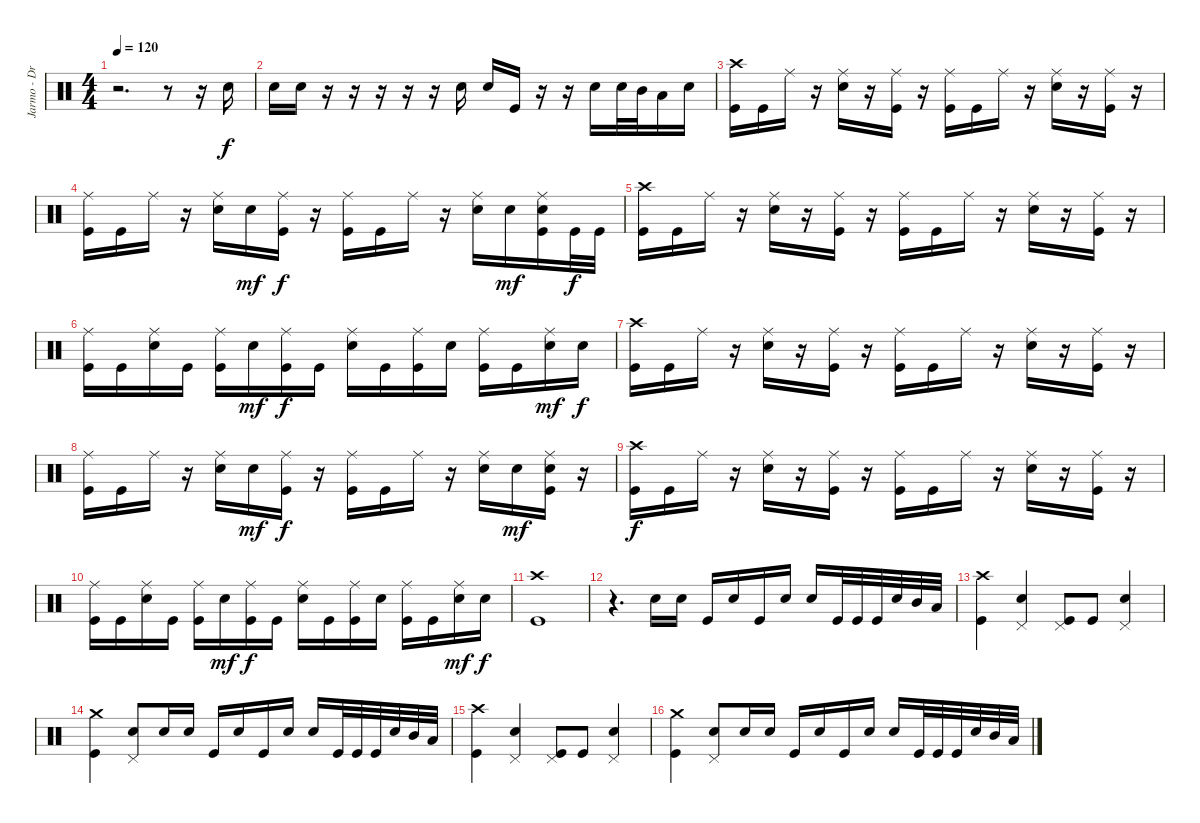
\track ("Jarmo - Drums" "Jarmo - Dr") {instrument percussion}
\staff {score}
\articulation defaults
\ts (4 4)
\tempo 120
\clef neutral
\ks c
r.2{d dy f} r.8 r.16 "Electric Snare (hit)".16 |
"Electric Snare (hit)".16 "Electric Snare (hit)".16 r.16 r.16 r.16 r.16 r.16 "Electric Snare (hit)".16 "Electric Snare (hit)".16 "Kick (hit)".16 r.16 r.16 "Electric Snare (hit)".16 "Electric Snare (hit)".32 "Mid Tom (hit)".32 "Low Tom (hit)".16 "Electric Snare (hit)".16 |
("Kick (hit)" "Crash high (hit)").16 "Kick (hit)".16 "Ride (middle)".16 r.16 ("Electric Snare (hit)" "Ride (middle)").16 r.16 ("Kick (hit)" "Ride (middle)").16 r.16 ("Kick (hit)" "Ride (middle)").16 "Kick (hit)".16 "Ride (middle)".16 r.16 ("Electric Snare (hit)" "Ride (middle)").16 r.16 ("Kick (hit)" "Ride (middle)").16 r.16 |
("Kick (hit)" "Ride (middle)").16 "Kick (hit)".16 "Ride (middle)".16 r.16 ("Electric Snare (hit)" "Ride (middle)").16 "Electric Snare (hit)".16{dy mf} ("Kick (hit)" "Ride (middle)").16{dy f} r.16 ("Kick (hit)" "Ride (middle)").16 "Kick (hit)".16 "Ride (middle)".16 r.16 ("Electric Snare (hit)" "Ride (middle)").16 "Electric Snare (hit)".16{dy mf} ("Kick (hit)" "Electric Snare (hit)" "Ride (middle)").16 "Kick (hit)".32{dy f} "Kick (hit)".32 |
("Kick (hit)" "Crash high (hit)").16 "Kick (hit)".16 "Ride (middle)".16 r.16 ("Electric Snare (hit)" "Ride (middle)").16 r.16 ("Kick (hit)" "Ride (middle)").16 r.16 ("Kick (hit)" "Ride (middle)").16 "Kick (hit)".16 "Ride (middle)".16 r.16 ("Electric Snare (hit)" "Ride (middle)").16 r.16 ("Kick (hit)" "Ride (middle)").16 r.16 |
("Kick (hit)" "Ride (middle)").16 "Kick (hit)".16 ("Electric Snare (hit)" "Ride (middle)").16 "Kick (hit)".16 ("Kick (hit)" "Ride (middle)").16 "Electric Snare (hit)".16{dy mf} ("Kick (hit)" "Ride (middle)").16{dy f} "Kick (hit)".16 ("Electric Snare (hit)" "Ride (middle)").16 "Kick (hit)".16 ("Kick (hit)" "Ride (middle)").16 "Electric Snare (hit)".16 ("Kick (hit)" "Ride (middle)").16 "Kick (hit)".16 ("Electric Snare (hit)" "Ride (middle)").16{dy mf} "Electric Snare (hit)".16{dy f} |
("Kick (hit)" "Crash high (hit)").16 "Kick (hit)".16 "Ride (middle)".16 r.16 ("Electric Snare (hit)" "Ride (middle)").16 r.16 ("Kick (hit)" "Ride (middle)").16 r.16 ("Kick (hit)" "Ride (middle)").16 "Kick (hit)".16 "Ride (middle)".16 r.16 ("Electric Snare (hit)" "Ride (middle)").16 r.16 ("Kick (hit)" "Ride (middle)").16 r.16 |
("Kick (hit)" "Ride (middle)").16 "Kick (hit)".16 "Ride (middle)".16 r.16 ("Electric Snare (hit)" "Ride (middle)").16 "Electric Snare (hit)".16{dy mf} ("Kick (hit)" "Ride (middle)").16{dy f} r.16 ("Kick (hit)" "Ride (middle)").16 "Kick (hit)".16 "Ride (middle)".16 r.16 ("Electric Snare (hit)" "Ride (middle)").16 "Electric Snare (hit)".16{dy mf} ("Kick (hit)" "Electric Snare (hit)" "Ride (middle)").16 r.16 |
("Kick (hit)" "Crash high (hit)").16{dy f} "Kick (hit)".16 "Ride (middle)".16 r.16 ("Electric Snare (hit)" "Ride (middle)").16 r.16 ("Kick (hit)" "Ride (middle)").16 r.16 ("Kick (hit)" "Ride (middle)").16 "Kick (hit)".16 "Ride (middle)".16 r.16 ("Electric Snare (hit)" "Ride (middle)").16 r.16 ("Kick (hit)" "Ride (middle)").16 r.16 |
("Kick (hit)" "Ride (middle)").16 "Kick (hit)".16 ("Electric Snare (hit)" "Ride (middle)").16 "Kick (hit)".16 ("Kick (hit)" "Ride (middle)").16 "Electric Snare (hit)".16{dy mf} ("Kick (hit)" "Ride (middle)").16{dy f} "Kick (hit)".16 ("Electric Snare (hit)" "Ride (middle)").16 "Kick (hit)".16 ("Kick (hit)" "Ride (middle)").16 "Electric Snare (hit)".16 ("Kick (hit)" "Ride (middle)").16 "Kick (hit)".16 ("Electric Snare (hit)" "Ride (middle)").16{dy mf} "Electric Snare (hit)".16{dy f} |
("Kick (hit)" "Crash high (hit)").1 |
r.4{d} "Electric Snare (hit)".16 "Electric Snare (hit)".16 "Kick (hit)".16 "Electric Snare (hit)".16 "Kick (hit)".16 "Electric Snare (hit)".16 "Electric Snare (hit)".16 "Kick (hit)".32 "Kick (hit)".32 "Kick (hit)".32 "Electric Snare (hit)".32 "Mid Tom (hit)".32 "Low Tom (hit)".32 |
("Kick (hit)" "Crash high (hit)").4 ("Electric Snare (hit)" "Pedal Hi-Hat (hit)").4 ("Kick (hit)" "Pedal Hi-Hat (hit)").8 "Kick (hit)".8 ("Electric Snare (hit)" "Pedal Hi-Hat (hit)").4 |
("Kick (hit)" "Crash medium (hit)").4 ("Electric Snare (hit)" "Pedal Hi-Hat (hit)").8 "Electric Snare (hit)".16 "Electric Snare (hit)".16 "Kick (hit)".16 "Electric Snare (hit)".16 "Kick (hit)".16 "Electric Snare (hit)".16 "Electric Snare (hit)".16 "Kick (hit)".32 "Kick (hit)".32 "Kick (hit)".32 "Electric Snare (hit)".32 "Mid Tom (hit)".32 "Low Tom (hit)".32 |
("Kick (hit)" "Crash high (hit)").4 ("Electric Snare (hit)" "Pedal Hi-Hat (hit)").4 ("Kick (hit)" "Pedal Hi-Hat (hit)").8 "Kick (hit)".8 ("Electric Snare (hit)" "Pedal Hi-Hat (hit)").4 |
("Kick (hit)" "Crash medium (hit)").4 ("Electric Snare (hit)" "Pedal Hi-Hat (hit)").8 "Electric Snare (hit)".16 "Electric Snare (hit)".16 "Kick (hit)".16 "Electric Snare (hit)".16 "Kick (hit)".16 "Electric Snare (hit)".16 "Electric Snare (hit)".16 "Kick (hit)".32 "Kick (hit)".32 "Kick (hit)".32 "Electric Snare (hit)".32 "Mid Tom (hit)".32 "Low Tom (hit)".32
